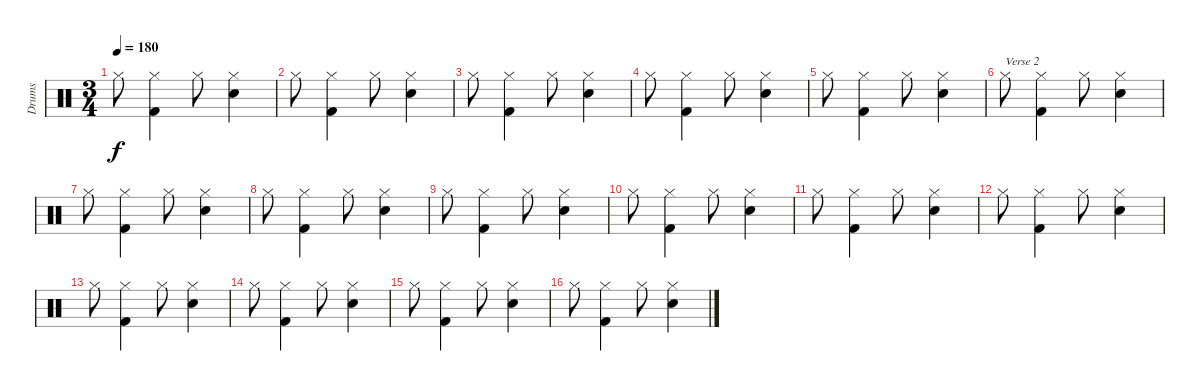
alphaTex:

\track ("Drums" "Drums") {instrument percussion}
\staff {score}
\articulation defaults
\ts (3 4)
\tempo 180
\clef neutral
\ks c "Hi-Hat (closed)".8{dy f}
("Hi-Hat (closed)" "Kick (hit) 2").4 "Hi-Hat (closed)".8 ("Hi-Hat (closed)" "Snare (hit) 2").4 |
"Hi-Hat (closed)".8 ("Hi-Hat (closed)" "Kick (hit) 2").4 "Hi-Hat (closed)".8 ("Hi-Hat (closed)" "Snare (hit) 2").4 |
"Hi-Hat (closed)".8 ("Hi-Hat (closed)" "Kick (hit) 2").4 "Hi-Hat (closed)".8 ("Hi-Hat (closed)" "Snare (hit) 2").4 |
"Hi-Hat (closed)".8 ("Hi-Hat (closed)" "Kick (hit) 2").4 "Hi-Hat (closed)".8 ("Hi-Hat (closed)" "Snare (hit) 2").4 |
"Hi-Hat (closed)".8 ("Hi-Hat (closed)" "Kick (hit) 2").4 "Hi-Hat (closed)".8 ("Hi-Hat (closed)" "Snare (hit) 2").4 |
"Hi-Hat (closed)".8{txt "Verse 2"} ("Hi-Hat (closed)" "Kick (hit) 2").4 "Hi-Hat (closed)".8 ("Hi-Hat (closed)" "Snare (hit) 2").4 |
"Hi-Hat (closed)".8 ("Hi-Hat (closed)" "Kick (hit) 2").4 "Hi-Hat (closed)".8 ("Hi-Hat (closed)" "Snare (hit) 2").4 |
"Hi-Hat (closed)".8 ("Hi-Hat (closed)" "Kick (hit) 2").4 "Hi-Hat (closed)".8 ("Hi-Hat (closed)" "Snare (hit) 2").4 |
"Hi-Hat (closed)".8 ("Hi-Hat (closed)" "Kick (hit) 2").4 "Hi-Hat (closed)".8 ("Hi-Hat (closed)" "Snare (hit) 2").4 |
"Hi-Hat (closed)".8 ("Hi-Hat (closed)" "Kick (hit) 2").4 "Hi-Hat (closed)".8 ("Hi-Hat (closed)" "Snare (hit) 2").4 |
"Hi-Hat (closed)".8 ("Hi-Hat (closed)" "Kick (hit) 2").4 "Hi-Hat (closed)".8 ("Hi-Hat (closed)" "Snare (hit) 2").4 |
"Hi-Hat (closed)".8 ("Hi-Hat (closed)" "Kick (hit) 2").4 "Hi-Hat (closed)".8 ("Hi-Hat (closed)" "Snare (hit) 2").4 |
"Hi-Hat (closed)".8 ("Hi-Hat (closed)" "Kick (hit) 2").4 "Hi-Hat (closed)".8 ("Hi-Hat (closed)" "Snare (hit) 2").4 |
"Hi-Hat (closed)".8 ("Hi-Hat (closed)" "Kick (hit) 2").4 "Hi-Hat (closed)".8 ("Hi-Hat (closed)" "Snare (hit) 2").4 |
"Hi-Hat (closed)".8 ("Hi-Hat (closed)" "Kick (hit) 2").4 "Hi-Hat (closed)".8 ("Hi-Hat (closed)" "Snare (hit) 2").4 |
"Hi-Hat (closed)".8 ("Hi-Hat (closed)" "Kick (hit) 2").4 "Hi-Hat (closed)".8 ("Hi-Hat (closed)" "Snare (hit) 2").4
